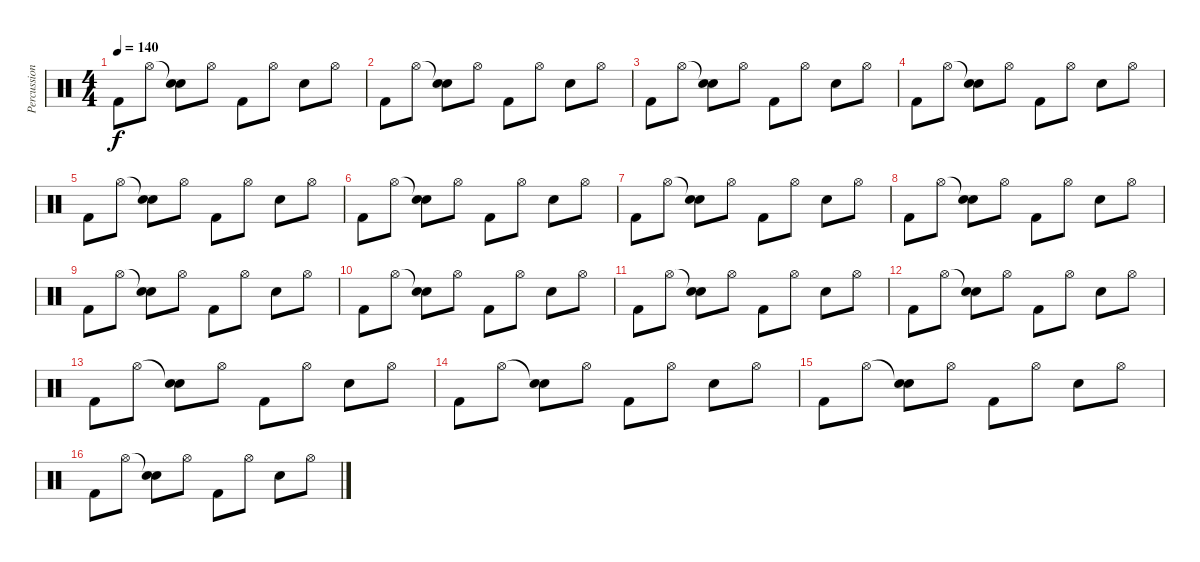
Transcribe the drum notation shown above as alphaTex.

\track ("Percussion" "Percussion") {instrument percussion}
\staff {score}
\articulation defaults
\ts (4 4)
\tempo 140
\clef neutral
\ks c "Kick (hit) 2".8{dy f} "Hi-Hat (open)".8
("Snare (hit)"{t} "Snare (hit) 2").8 "Hi-Hat (open)".8 "Kick (hit) 2".8 "Hi-Hat (open)".8 "Snare (hit) 2".8 "Hi-Hat (open)".8 |
"Kick (hit) 2".8 "Hi-Hat (open)".8 ("Snare (hit)"{t} "Snare (hit) 2").8 "Hi-Hat (open)".8 "Kick (hit) 2".8 "Hi-Hat (open)".8 "Snare (hit) 2".8 "Hi-Hat (open)".8 |
"Kick (hit) 2".8 "Hi-Hat (open)".8 ("Snare (hit)"{t} "Snare (hit) 2").8 "Hi-Hat (open)".8 "Kick (hit) 2".8 "Hi-Hat (open)".8 "Snare (hit) 2".8 "Hi-Hat (open)".8 |
"Kick (hit) 2".8 "Hi-Hat (open)".8 ("Snare (hit)"{t} "Snare (hit) 2").8 "Hi-Hat (open)".8 "Kick (hit) 2".8 "Hi-Hat (open)".8 "Snare (hit) 2".8 "Hi-Hat (open)".8 |
"Kick (hit) 2".8 "Hi-Hat (open)".8 ("Snare (hit)"{t} "Snare (hit) 2").8 "Hi-Hat (open)".8 "Kick (hit) 2".8 "Hi-Hat (open)".8 "Snare (hit) 2".8 "Hi-Hat (open)".8 |
"Kick (hit) 2".8 "Hi-Hat (open)".8 ("Snare (hit)"{t} "Snare (hit) 2").8 "Hi-Hat (open)".8 "Kick (hit) 2".8 "Hi-Hat (open)".8 "Snare (hit) 2".8 "Hi-Hat (open)".8 |
"Kick (hit) 2".8 "Hi-Hat (open)".8 ("Snare (hit)"{t} "Snare (hit) 2").8 "Hi-Hat (open)".8 "Kick (hit) 2".8 "Hi-Hat (open)".8 "Snare (hit) 2".8 "Hi-Hat (open)".8 |
"Kick (hit) 2".8 "Hi-Hat (open)".8 ("Snare (hit)"{t} "Snare (hit) 2").8 "Hi-Hat (open)".8 "Kick (hit) 2".8 "Hi-Hat (open)".8 "Snare (hit) 2".8 "Hi-Hat (open)".8 |
"Kick (hit) 2".8 "Hi-Hat (open)".8 ("Snare (hit)"{t} "Snare (hit) 2").8 "Hi-Hat (open)".8 "Kick (hit) 2".8 "Hi-Hat (open)".8 "Snare (hit) 2".8 "Hi-Hat (open)".8 |
"Kick (hit) 2".8 "Hi-Hat (open)".8 ("Snare (hit)"{t} "Snare (hit) 2").8 "Hi-Hat (open)".8 "Kick (hit) 2".8 "Hi-Hat (open)".8 "Snare (hit) 2".8 "Hi-Hat (open)".8 |
"Kick (hit) 2".8 "Hi-Hat (open)".8 ("Snare (hit)"{t} "Snare (hit) 2").8 "Hi-Hat (open)".8 "Kick (hit) 2".8 "Hi-Hat (open)".8 "Snare (hit) 2".8 "Hi-Hat (open)".8 |
"Kick (hit) 2".8 "Hi-Hat (open)".8 ("Snare (hit)"{t} "Snare (hit) 2").8 "Hi-Hat (open)".8 "Kick (hit) 2".8 "Hi-Hat (open)".8 "Snare (hit) 2".8 "Hi-Hat (open)".8 |
"Kick (hit) 2".8 "Hi-Hat (open)".8 ("Snare (hit)"{t} "Snare (hit) 2").8 "Hi-Hat (open)".8 "Kick (hit) 2".8 "Hi-Hat (open)".8 "Snare (hit) 2".8 "Hi-Hat (open)".8 |
"Kick (hit) 2".8 "Hi-Hat (open)".8 ("Snare (hit)"{t} "Snare (hit) 2").8 "Hi-Hat (open)".8 "Kick (hit) 2".8 "Hi-Hat (open)".8 "Snare (hit) 2".8 "Hi-Hat (open)".8 |
"Kick (hit) 2".8 "Hi-Hat (open)".8 ("Snare (hit)"{t} "Snare (hit) 2").8 "Hi-Hat (open)".8 "Kick (hit) 2".8 "Hi-Hat (open)".8 "Snare (hit) 2".8 "Hi-Hat (open)".8 |
"Kick (hit) 2".8 "Hi-Hat (open)".8 ("Snare (hit)"{t} "Snare (hit) 2").8 "Hi-Hat (open)".8 "Kick (hit) 2".8 "Hi-Hat (open)".8 "Snare (hit) 2".8 "Hi-Hat (open)".8
